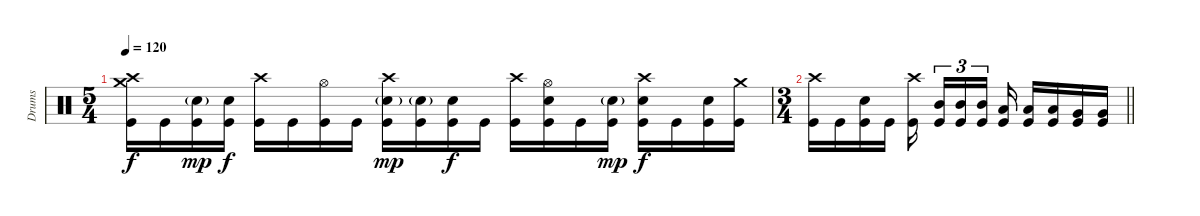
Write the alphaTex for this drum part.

\track ("Drums" "Drums") {instrument percussion}
\staff
\articulation defaults
\ts (5 4)
\tempo 120
\clef neutral
\ks c
("Crash high (hit)" "Crash medium (hit)" "Kick (hit)").16{dy f} "Kick (hit)".16 ("Electric Snare (hit)"{g} "Kick (hit)").16{dy mp} ("Electric Snare (hit)" "Kick (hit)").16{dy f} ("Crash high (hit)" "Kick (hit)").16 "Kick (hit)".16 ("Hi-Hat (open)" "Kick (hit)").16 "Kick (hit)".16 ("Crash high (hit)" "Electric Snare (hit)"{g} "Kick (hit)").16{dy mp} ("Electric Snare (hit)"{g} "Kick (hit)").16 ("Electric Snare (hit)" "Kick (hit)").16{dy f} "Kick (hit)".16 ("Crash high (hit)" "Kick (hit)").16 ("Hi-Hat (open)" "Electric Snare (hit)" "Kick (hit)").16 "Kick (hit)".16 ("Electric Snare (hit)"{g} "Kick (hit)").16{dy mp} ("Crash high (hit)" "Electric Snare (hit)" "Kick (hit)").16{dy f} "Kick (hit)".16 ("Electric Snare (hit)" "Kick (hit)").16 ("Crash medium (hit)" "Kick (hit)").16 |
\ts (3 4)
\barLineRight lightlight
("Crash high (hit)" "Kick (hit)").16 "Kick (hit)".16 ("Electric Snare (hit)" "Kick (hit)").16 "Kick (hit)".16 ("Crash high (hit)" "Kick (hit)").16{beam splitsecondary} ("Mid Tom (hit)" "Kick (hit)").16{tu (3 2)} ("Mid Tom (hit)" "Kick (hit)").16{tu (3 2)} ("Mid Tom (hit)" "Kick (hit)").16{tu (3 2) beam splitsecondary} ("Low Tom (hit)" "Kick (hit)").16 ("Low Tom (hit)" "Kick (hit)").16 ("Low Tom (hit)" "Kick (hit)").16 ("Very Low Tom (hit)" "Kick (hit)").16 ("Very Low Tom (hit)" "Kick (hit)").16
